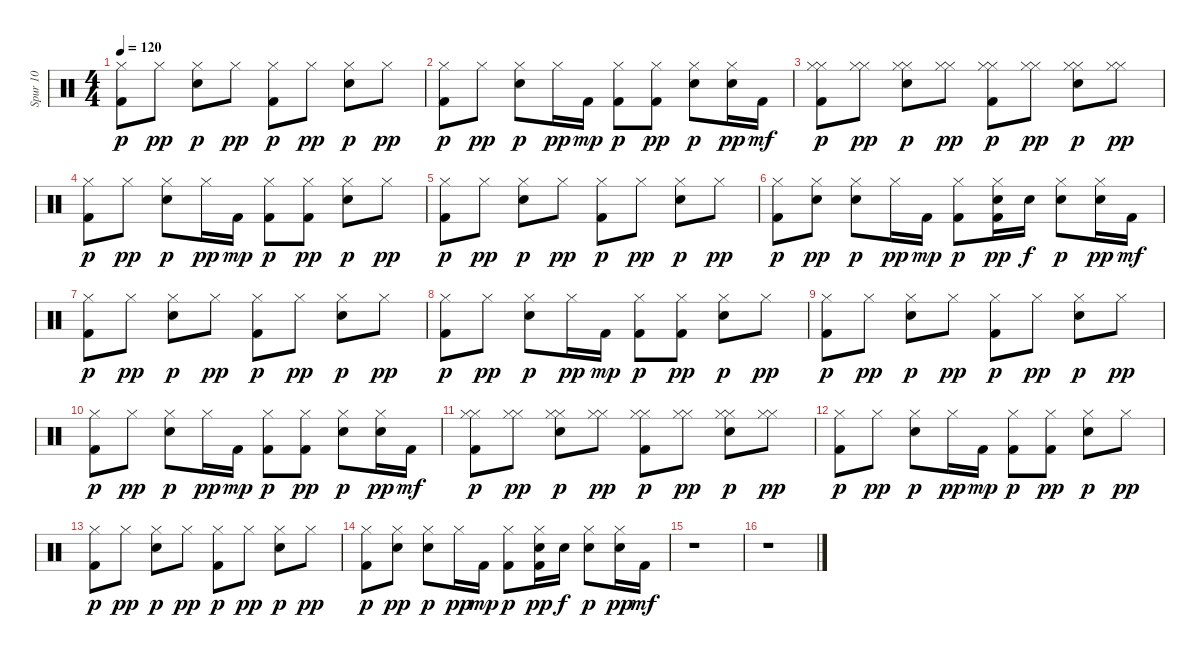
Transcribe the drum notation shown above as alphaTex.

\track ("Spur 10" "Spur 10") {instrument percussion}
\staff {score}
\articulation defaults
\ts (4 4)
\tempo 120
\clef neutral
\ks c
("Kick (hit) 2" "Hi-Hat (closed)").8{dy p} "Hi-Hat (closed)".8{dy pp} ("Snare (hit) 2" "Hi-Hat (closed)").8{dy p} "Hi-Hat (closed)".8{dy pp} ("Kick (hit) 2" "Hi-Hat (closed)").8{dy p} "Hi-Hat (closed)".8{dy pp} ("Snare (hit) 2" "Hi-Hat (closed)").8{dy p} "Hi-Hat (closed)".8{dy pp} |
("Kick (hit) 2" "Hi-Hat (closed)").8{dy p} "Hi-Hat (closed)".8{dy pp} ("Snare (hit) 2" "Hi-Hat (closed)").8{dy p} "Hi-Hat (closed)".16{dy pp} "Kick (hit) 2".16{dy mp} ("Kick (hit) 2" "Hi-Hat (closed)").8{dy p} ("Kick (hit) 2" "Hi-Hat (closed)").8{dy pp} ("Snare (hit) 2" "Hi-Hat (closed)").8{dy p} ("Snare (hit) 2" "Hi-Hat (closed)").16{dy pp} "Kick (hit) 2".16{dy mf} |
("Kick (hit) 2" "Hi-Hat (closed)" "Hi-Hat (closed)").8{dy p} ("Hi-Hat (closed)" "Hi-Hat (closed)").8{dy pp} ("Snare (hit) 2" "Hi-Hat (closed)" "Hi-Hat (closed)").8{dy p} ("Hi-Hat (closed)" "Hi-Hat (closed)").8{dy pp} ("Kick (hit) 2" "Hi-Hat (closed)" "Hi-Hat (closed)").8{dy p} ("Hi-Hat (closed)" "Hi-Hat (closed)").8{dy pp} ("Snare (hit) 2" "Hi-Hat (closed)" "Hi-Hat (closed)").8{dy p} ("Hi-Hat (closed)" "Hi-Hat (closed)").8{dy pp} |
("Kick (hit) 2" "Hi-Hat (closed)").8{dy p} "Hi-Hat (closed)".8{dy pp} ("Snare (hit) 2" "Hi-Hat (closed)").8{dy p} "Hi-Hat (closed)".16{dy pp} "Kick (hit) 2".16{dy mp} ("Kick (hit) 2" "Hi-Hat (closed)").8{dy p} ("Kick (hit) 2" "Hi-Hat (closed)").8{dy pp} ("Snare (hit) 2" "Hi-Hat (closed)").8{dy p} "Hi-Hat (closed)".8{dy pp} |
("Kick (hit) 2" "Hi-Hat (closed)").8{dy p} "Hi-Hat (closed)".8{dy pp} ("Snare (hit) 2" "Hi-Hat (closed)").8{dy p} "Hi-Hat (closed)".8{dy pp} ("Kick (hit) 2" "Hi-Hat (closed)").8{dy p} "Hi-Hat (closed)".8{dy pp} ("Snare (hit) 2" "Hi-Hat (closed)").8{dy p} "Hi-Hat (closed)".8{dy pp} |
("Kick (hit) 2" "Hi-Hat (closed)").8{dy p} ("Snare (hit) 2" "Hi-Hat (closed)").8{dy pp} ("Snare (hit) 2" "Hi-Hat (closed)").8{dy p} "Hi-Hat (closed)".16{dy pp} "Kick (hit) 2".16{dy mp} ("Kick (hit) 2" "Hi-Hat (closed)").8{dy p} ("Kick (hit) 2" "Snare (hit) 2" "Hi-Hat (closed)").16{dy pp} "Snare (hit) 2".16{dy f} ("Snare (hit) 2" "Hi-Hat (closed)").8{dy p} ("Snare (hit) 2" "Hi-Hat (closed)").16{dy pp} "Kick (hit) 2".16{dy mf} |
("Kick (hit) 2" "Hi-Hat (closed)").8{dy p} "Hi-Hat (closed)".8{dy pp} ("Snare (hit) 2" "Hi-Hat (closed)").8{dy p} "Hi-Hat (closed)".8{dy pp} ("Kick (hit) 2" "Hi-Hat (closed)").8{dy p} "Hi-Hat (closed)".8{dy pp} ("Snare (hit) 2" "Hi-Hat (closed)").8{dy p} "Hi-Hat (closed)".8{dy pp} |
("Kick (hit) 2" "Hi-Hat (closed)").8{dy p} "Hi-Hat (closed)".8{dy pp} ("Snare (hit) 2" "Hi-Hat (closed)").8{dy p} "Hi-Hat (closed)".16{dy pp} "Kick (hit) 2".16{dy mp} ("Kick (hit) 2" "Hi-Hat (closed)").8{dy p} ("Kick (hit) 2" "Hi-Hat (closed)").8{dy pp} ("Snare (hit) 2" "Hi-Hat (closed)").8{dy p} "Hi-Hat (closed)".8{dy pp} |
("Kick (hit) 2" "Hi-Hat (closed)").8{dy p} "Hi-Hat (closed)".8{dy pp} ("Snare (hit) 2" "Hi-Hat (closed)").8{dy p} "Hi-Hat (closed)".8{dy pp} ("Kick (hit) 2" "Hi-Hat (closed)").8{dy p} "Hi-Hat (closed)".8{dy pp} ("Snare (hit) 2" "Hi-Hat (closed)").8{dy p} "Hi-Hat (closed)".8{dy pp} |
("Kick (hit) 2" "Hi-Hat (closed)").8{dy p} "Hi-Hat (closed)".8{dy pp} ("Snare (hit) 2" "Hi-Hat (closed)").8{dy p} "Hi-Hat (closed)".16{dy pp} "Kick (hit) 2".16{dy mp} ("Kick (hit) 2" "Hi-Hat (closed)").8{dy p} ("Kick (hit) 2" "Hi-Hat (closed)").8{dy pp} ("Snare (hit) 2" "Hi-Hat (closed)").8{dy p} ("Snare (hit) 2" "Hi-Hat (closed)").16{dy pp} "Kick (hit) 2".16{dy mf} |
("Kick (hit) 2" "Hi-Hat (closed)" "Hi-Hat (closed)").8{dy p} ("Hi-Hat (closed)" "Hi-Hat (closed)").8{dy pp} ("Snare (hit) 2" "Hi-Hat (closed)" "Hi-Hat (closed)").8{dy p} ("Hi-Hat (closed)" "Hi-Hat (closed)").8{dy pp} ("Kick (hit) 2" "Hi-Hat (closed)" "Hi-Hat (closed)").8{dy p} ("Hi-Hat (closed)" "Hi-Hat (closed)").8{dy pp} ("Snare (hit) 2" "Hi-Hat (closed)" "Hi-Hat (closed)").8{dy p} ("Hi-Hat (closed)" "Hi-Hat (closed)").8{dy pp} |
("Kick (hit) 2" "Hi-Hat (closed)").8{dy p} "Hi-Hat (closed)".8{dy pp} ("Snare (hit) 2" "Hi-Hat (closed)").8{dy p} "Hi-Hat (closed)".16{dy pp} "Kick (hit) 2".16{dy mp} ("Kick (hit) 2" "Hi-Hat (closed)").8{dy p} ("Kick (hit) 2" "Hi-Hat (closed)").8{dy pp} ("Snare (hit) 2" "Hi-Hat (closed)").8{dy p} "Hi-Hat (closed)".8{dy pp} |
("Kick (hit) 2" "Hi-Hat (closed)").8{dy p} "Hi-Hat (closed)".8{dy pp} ("Snare (hit) 2" "Hi-Hat (closed)").8{dy p} "Hi-Hat (closed)".8{dy pp} ("Kick (hit) 2" "Hi-Hat (closed)").8{dy p} "Hi-Hat (closed)".8{dy pp} ("Snare (hit) 2" "Hi-Hat (closed)").8{dy p} "Hi-Hat (closed)".8{dy pp} |
("Kick (hit) 2" "Hi-Hat (closed)").8{dy p} ("Snare (hit) 2" "Hi-Hat (closed)").8{dy pp} ("Snare (hit) 2" "Hi-Hat (closed)").8{dy p} "Hi-Hat (closed)".16{dy pp} "Kick (hit) 2".16{dy mp} ("Kick (hit) 2" "Hi-Hat (closed)").8{dy p} ("Kick (hit) 2" "Snare (hit) 2" "Hi-Hat (closed)").16{dy pp} "Snare (hit) 2".16{dy f} ("Snare (hit) 2" "Hi-Hat (closed)").8{dy p} ("Snare (hit) 2" "Hi-Hat (closed)").16{dy pp} "Kick (hit) 2".16{dy mf} |
r.1 |
r.1
